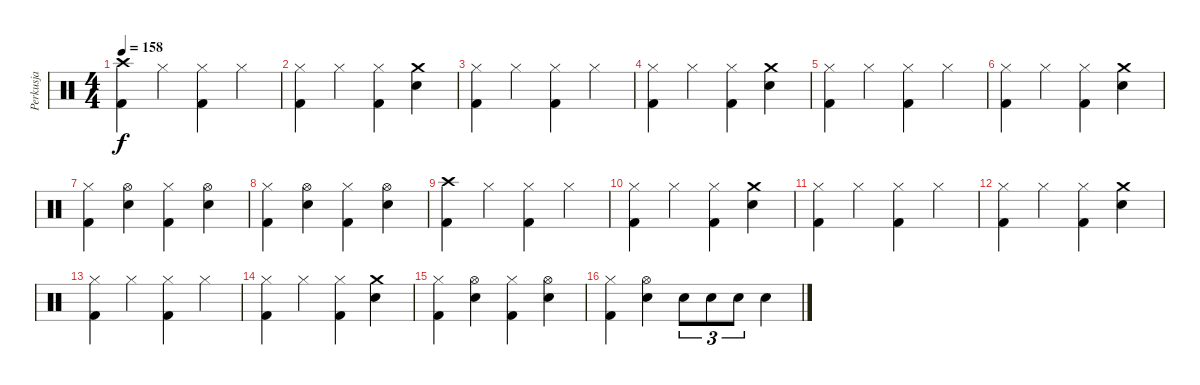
\track ("Perkusja" "Perkusja") {instrument percussion}
\staff {score}
\articulation defaults
\ts (4 4)
\tempo 158
\clef neutral
\ks c
("Crash high (hit)" "Kick (hit) 2").4{dy f} "Hi-Hat (closed)".4 ("Hi-Hat (closed)" "Kick (hit) 2").4 "Hi-Hat (closed)".4 |
("Hi-Hat (closed)" "Kick (hit) 2").4 "Hi-Hat (closed)".4 ("Hi-Hat (closed)" "Kick (hit) 2").4 ("Crash medium (hit)" "Snare (hit) 2").4 |
("Hi-Hat (closed)" "Kick (hit) 2").4 "Hi-Hat (closed)".4 ("Hi-Hat (closed)" "Kick (hit) 2").4 "Hi-Hat (closed)".4 |
("Hi-Hat (closed)" "Kick (hit) 2").4 "Hi-Hat (closed)".4 ("Hi-Hat (closed)" "Kick (hit) 2").4 ("Crash medium (hit)" "Snare (hit) 2").4 |
("Hi-Hat (closed)" "Kick (hit) 2").4 "Hi-Hat (closed)".4 ("Hi-Hat (closed)" "Kick (hit) 2").4 "Hi-Hat (closed)".4 |
("Hi-Hat (closed)" "Kick (hit) 2").4 "Hi-Hat (closed)".4 ("Hi-Hat (closed)" "Kick (hit) 2").4 ("Crash medium (hit)" "Snare (hit) 2").4 |
("Hi-Hat (closed)" "Kick (hit) 2").4 ("Hi-Hat (open)" "Snare (hit) 2").4 ("Hi-Hat (closed)" "Kick (hit) 2").4 ("Hi-Hat (open)" "Snare (hit) 2").4 |
("Hi-Hat (closed)" "Kick (hit) 2").4 ("Hi-Hat (open)" "Snare (hit) 2").4 ("Hi-Hat (closed)" "Kick (hit) 2").4 ("Hi-Hat (open)" "Snare (hit) 2").4 |
("Crash high (hit)" "Kick (hit) 2").4 "Hi-Hat (closed)".4 ("Hi-Hat (closed)" "Kick (hit) 2").4 "Hi-Hat (closed)".4 |
("Hi-Hat (closed)" "Kick (hit) 2").4 "Hi-Hat (closed)".4 ("Hi-Hat (closed)" "Kick (hit) 2").4 ("Crash medium (hit)" "Snare (hit) 2").4 |
("Hi-Hat (closed)" "Kick (hit) 2").4 "Hi-Hat (closed)".4 ("Hi-Hat (closed)" "Kick (hit) 2").4 "Hi-Hat (closed)".4 |
("Hi-Hat (closed)" "Kick (hit) 2").4 "Hi-Hat (closed)".4 ("Hi-Hat (closed)" "Kick (hit) 2").4 ("Crash medium (hit)" "Snare (hit) 2").4 |
("Hi-Hat (closed)" "Kick (hit) 2").4 "Hi-Hat (closed)".4 ("Hi-Hat (closed)" "Kick (hit) 2").4 "Hi-Hat (closed)".4 |
("Hi-Hat (closed)" "Kick (hit) 2").4 "Hi-Hat (closed)".4 ("Hi-Hat (closed)" "Kick (hit) 2").4 ("Crash medium (hit)" "Snare (hit) 2").4 |
("Hi-Hat (closed)" "Kick (hit) 2").4 ("Hi-Hat (open)" "Snare (hit) 2").4 ("Hi-Hat (closed)" "Kick (hit) 2").4 ("Hi-Hat (open)" "Snare (hit) 2").4 |
("Hi-Hat (closed)" "Kick (hit) 2").4 ("Hi-Hat (open)" "Snare (hit) 2").4 "Snare (hit) 2".8{tu (3 2)} "Snare (hit) 2".8{tu (3 2)} "Snare (hit) 2".8{tu (3 2)} "Snare (hit) 2".4
